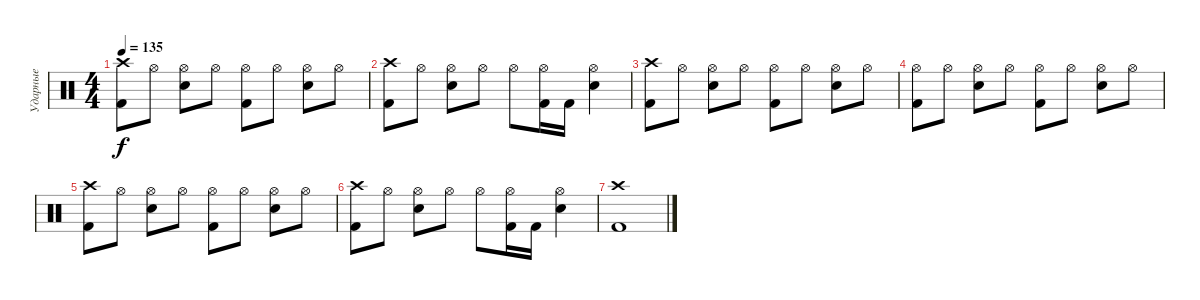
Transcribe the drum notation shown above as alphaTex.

\track ("Ударные" "Ударные") {instrument percussion}
\staff {score}
\articulation defaults
\ts (4 4)
\tempo 135
\clef neutral
\ks c
("Crash high (hit)" "Kick (hit) 2").8{dy f} "Hi-Hat (open)".8 ("Hi-Hat (open)" "Electric Snare (hit)").8 "Hi-Hat (open)".8 ("Hi-Hat (open)" "Kick (hit) 2").8 "Hi-Hat (open)".8 ("Hi-Hat (open)" "Electric Snare (hit)").8 "Hi-Hat (open)".8 |
("Crash high (hit)" "Kick (hit) 2").8 "Hi-Hat (open)".8 ("Hi-Hat (open)" "Electric Snare (hit)").8 "Hi-Hat (open)".8 "Hi-Hat (open)".8 ("Hi-Hat (open)" "Kick (hit) 2").16 "Kick (hit) 2".16 ("Hi-Hat (open)" "Electric Snare (hit)").4 |
("Crash high (hit)" "Kick (hit) 2").8 "Hi-Hat (open)".8 ("Hi-Hat (open)" "Electric Snare (hit)").8 "Hi-Hat (open)".8 ("Hi-Hat (open)" "Kick (hit) 2").8 "Hi-Hat (open)".8 ("Hi-Hat (open)" "Electric Snare (hit)").8 "Hi-Hat (open)".8 |
("Hi-Hat (open)" "Kick (hit) 2").8 "Hi-Hat (open)".8 ("Hi-Hat (open)" "Electric Snare (hit)").8 "Hi-Hat (open)".8 ("Hi-Hat (open)" "Kick (hit) 2").8 "Hi-Hat (open)".8 ("Hi-Hat (open)" "Electric Snare (hit)").8 "Hi-Hat (open)".8 |
("Crash high (hit)" "Kick (hit) 2").8 "Hi-Hat (open)".8 ("Hi-Hat (open)" "Electric Snare (hit)").8 "Hi-Hat (open)".8 ("Hi-Hat (open)" "Kick (hit) 2").8 "Hi-Hat (open)".8 ("Hi-Hat (open)" "Electric Snare (hit)").8 "Hi-Hat (open)".8 |
("Crash high (hit)" "Kick (hit) 2").8 "Hi-Hat (open)".8 ("Hi-Hat (open)" "Electric Snare (hit)").8 "Hi-Hat (open)".8 "Hi-Hat (open)".8 ("Hi-Hat (open)" "Kick (hit) 2").16 "Kick (hit) 2".16 ("Hi-Hat (open)" "Electric Snare (hit)").4 |
("Crash high (hit)" "Kick (hit) 2").1
